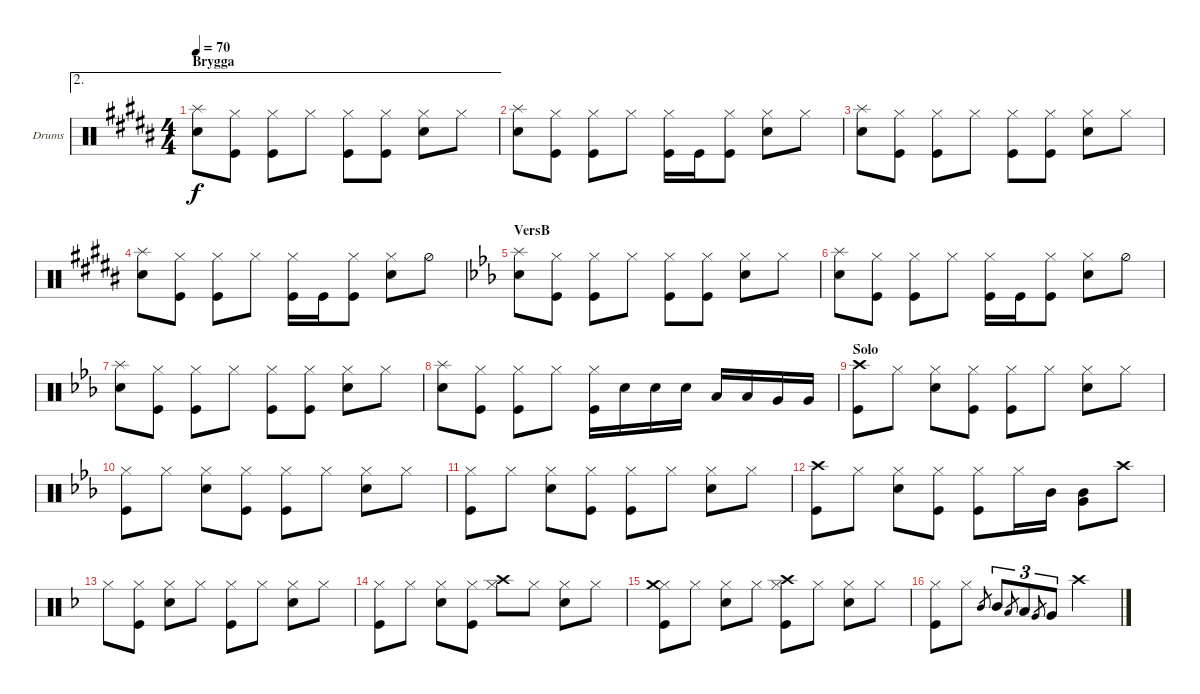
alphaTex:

\defaultSystemsLayout 4
\bracketExtendMode groupsimilarinstruments
\firstSystemTrackNameOrientation horizontal
\otherSystemsTrackNameOrientation horizontal
\track ("Drumkit" "Drums") {instrument percussion}
\staff {score}
\articulation defaults
\ae 2
\ts (4 4)
\section ("" "Brygga")
\tempo 70
\clef neutral
\ks g#minor
("Splash (hit)" "Snare (hit) 2").8{dy f} ("Hi-Hat (closed)" "Kick (hit)").8 ("Hi-Hat (closed)" "Kick (hit)").8 "Hi-Hat (closed)".8 ("Hi-Hat (closed)" "Kick (hit)").8 ("Hi-Hat (closed)" "Kick (hit)").8 ("Hi-Hat (closed)" "Snare (hit) 2").8 "Hi-Hat (closed)".8 |
("Splash (hit)" "Snare (hit) 2").8 ("Hi-Hat (closed)" "Kick (hit)").8 ("Hi-Hat (closed)" "Kick (hit)").8 "Hi-Hat (closed)".8 ("Hi-Hat (closed)" "Kick (hit)").16 "Kick (hit)".16 ("Hi-Hat (closed)" "Kick (hit)").8 ("Snare (hit) 2" "Hi-Hat (closed)").8 "Hi-Hat (closed)".8 |
("Splash (hit)" "Snare (hit) 2").8 ("Hi-Hat (closed)" "Kick (hit)").8 ("Hi-Hat (closed)" "Kick (hit)").8 "Hi-Hat (closed)".8 ("Hi-Hat (closed)" "Kick (hit)").8 ("Hi-Hat (closed)" "Kick (hit)").8 ("Hi-Hat (closed)" "Snare (hit) 2").8 "Hi-Hat (closed)".8 |
("Splash (hit)" "Snare (hit) 2").8 ("Hi-Hat (closed)" "Kick (hit)").8 ("Hi-Hat (closed)" "Kick (hit)").8 "Hi-Hat (closed)".8 ("Hi-Hat (closed)" "Kick (hit)").16 "Kick (hit)".16 ("Hi-Hat (closed)" "Kick (hit)").8 ("Snare (hit) 2" "Hi-Hat (closed)").8 "Hi-Hat (half)".8 |
\section ("" "VersB")
\ks cminor
("Splash (hit)" "Snare (hit) 2").8 ("Hi-Hat (closed)" "Kick (hit)").8 ("Hi-Hat (closed)" "Kick (hit)").8 "Hi-Hat (closed)".8 ("Hi-Hat (closed)" "Kick (hit)").8 ("Hi-Hat (closed)" "Kick (hit)").8 ("Hi-Hat (closed)" "Snare (hit) 2").8 "Hi-Hat (closed)".8 |
("Splash (hit)" "Snare (hit) 2").8 ("Hi-Hat (closed)" "Kick (hit)").8 ("Hi-Hat (closed)" "Kick (hit)").8 "Hi-Hat (closed)".8 ("Hi-Hat (closed)" "Kick (hit)").16 "Kick (hit)".16 ("Hi-Hat (closed)" "Kick (hit)").8 ("Snare (hit) 2" "Hi-Hat (closed)").8 "Hi-Hat (half)".8 |
("Splash (hit)" "Snare (hit) 2").8 ("Hi-Hat (closed)" "Kick (hit)").8 ("Hi-Hat (closed)" "Kick (hit)").8 "Hi-Hat (closed)".8 ("Hi-Hat (closed)" "Kick (hit)").8 ("Hi-Hat (closed)" "Kick (hit)").8 ("Hi-Hat (closed)" "Snare (hit) 2").8 "Hi-Hat (closed)".8 |
("Splash (hit)" "Snare (hit) 2").8 ("Hi-Hat (closed)" "Kick (hit)").8 ("Hi-Hat (closed)" "Kick (hit)").8 "Hi-Hat (closed)".8 ("Hi-Hat (closed)" "Kick (hit)").16 "Snare (hit) 2".16 "Snare (hit) 2".16 "Snare (hit) 2".16 "Low Tom (hit)".16 "Low Tom (hit)".16 "Very Low Tom (hit)".16 "Very Low Tom (hit)".16 |
\section ("" "Solo")
("Crash high (hit)" "Kick (hit)").8 "Hi-Hat (closed)".8 ("Snare (hit) 2" "Hi-Hat (closed)").8 ("Kick (hit)" "Hi-Hat (closed)").8 ("Kick (hit)" "Hi-Hat (closed)").8 "Hi-Hat (closed)".8 ("Snare (hit) 2" "Hi-Hat (closed)").8 "Hi-Hat (closed)".8 |
("Hi-Hat (closed)" "Kick (hit)").8 "Hi-Hat (closed)".8 ("Snare (hit) 2" "Hi-Hat (closed)").8 ("Kick (hit)" "Hi-Hat (closed)").8 ("Kick (hit)" "Hi-Hat (closed)").8 "Hi-Hat (closed)".8 ("Snare (hit) 2" "Hi-Hat (closed)").8 "Hi-Hat (closed)".8 |
("Hi-Hat (closed)" "Kick (hit)").8 "Hi-Hat (closed)".8 ("Snare (hit) 2" "Hi-Hat (closed)").8 ("Kick (hit)" "Hi-Hat (closed)").8 ("Kick (hit)" "Hi-Hat (closed)").8 "Hi-Hat (closed)".8 ("Snare (hit) 2" "Hi-Hat (closed)").8 "Hi-Hat (closed)".8 |
("Crash high (hit)" "Kick (hit)").8 "Hi-Hat (closed)".8 ("Snare (hit) 2" "Hi-Hat (closed)").8 ("Kick (hit)" "Hi-Hat (closed)").8 ("Kick (hit)" "Hi-Hat (closed)").8 "Hi-Hat (closed)".16 "Mid Tom (hit)".16 ("Mid Tom (hit)" "Very Low Tom (hit)").8 "Crash high (hit)".8 |
\ks dminor "Hi-Hat (closed)".8
("Hi-Hat (closed)" "Kick (hit)").8 ("Hi-Hat (closed)" "Snare (hit) 2").8 "Hi-Hat (closed)".8 ("Hi-Hat (closed)" "Kick (hit)").8 "Hi-Hat (closed)".8 ("Hi-Hat (closed)" "Snare (hit) 2").8 "Hi-Hat (closed)".8 |
("Hi-Hat (closed)" "Kick (hit)").8 "Hi-Hat (closed)".8 ("Hi-Hat (closed)" "Snare (hit) 2").8 ("Hi-Hat (closed)" "Kick (hit)").8 ("Crash high (hit)" "Hi-Hat (closed)").8 "Hi-Hat (closed)".8 ("Hi-Hat (closed)" "Snare (hit) 2").8 "Hi-Hat (closed)".8 |
("Hi-Hat (closed)" "Crash medium (hit)" "Kick (hit)").8 "Hi-Hat (closed)".8 ("Hi-Hat (closed)" "Snare (hit) 2").8 "Hi-Hat (closed)".8 ("Hi-Hat (closed)" "Crash high (hit)" "Kick (hit)").8 "Hi-Hat (closed)".8 ("Hi-Hat (closed)" "Snare (hit) 2").8 "Hi-Hat (closed)".8 |
("Hi-Hat (closed)" "Kick (hit)").8 "Hi-Hat (closed)".8 "Mid Tom (hit)".8{gr} "Mid Tom (hit)".8{tu (3 2)} "Low Tom (hit)".8{tu (3 2) gr} "Low Tom (hit)".8{tu (3 2)} "Very Low Tom (hit)".8{tu (3 2) gr} "Very Low Tom (hit)".8{tu (3 2)} "Crash high (hit)".2
